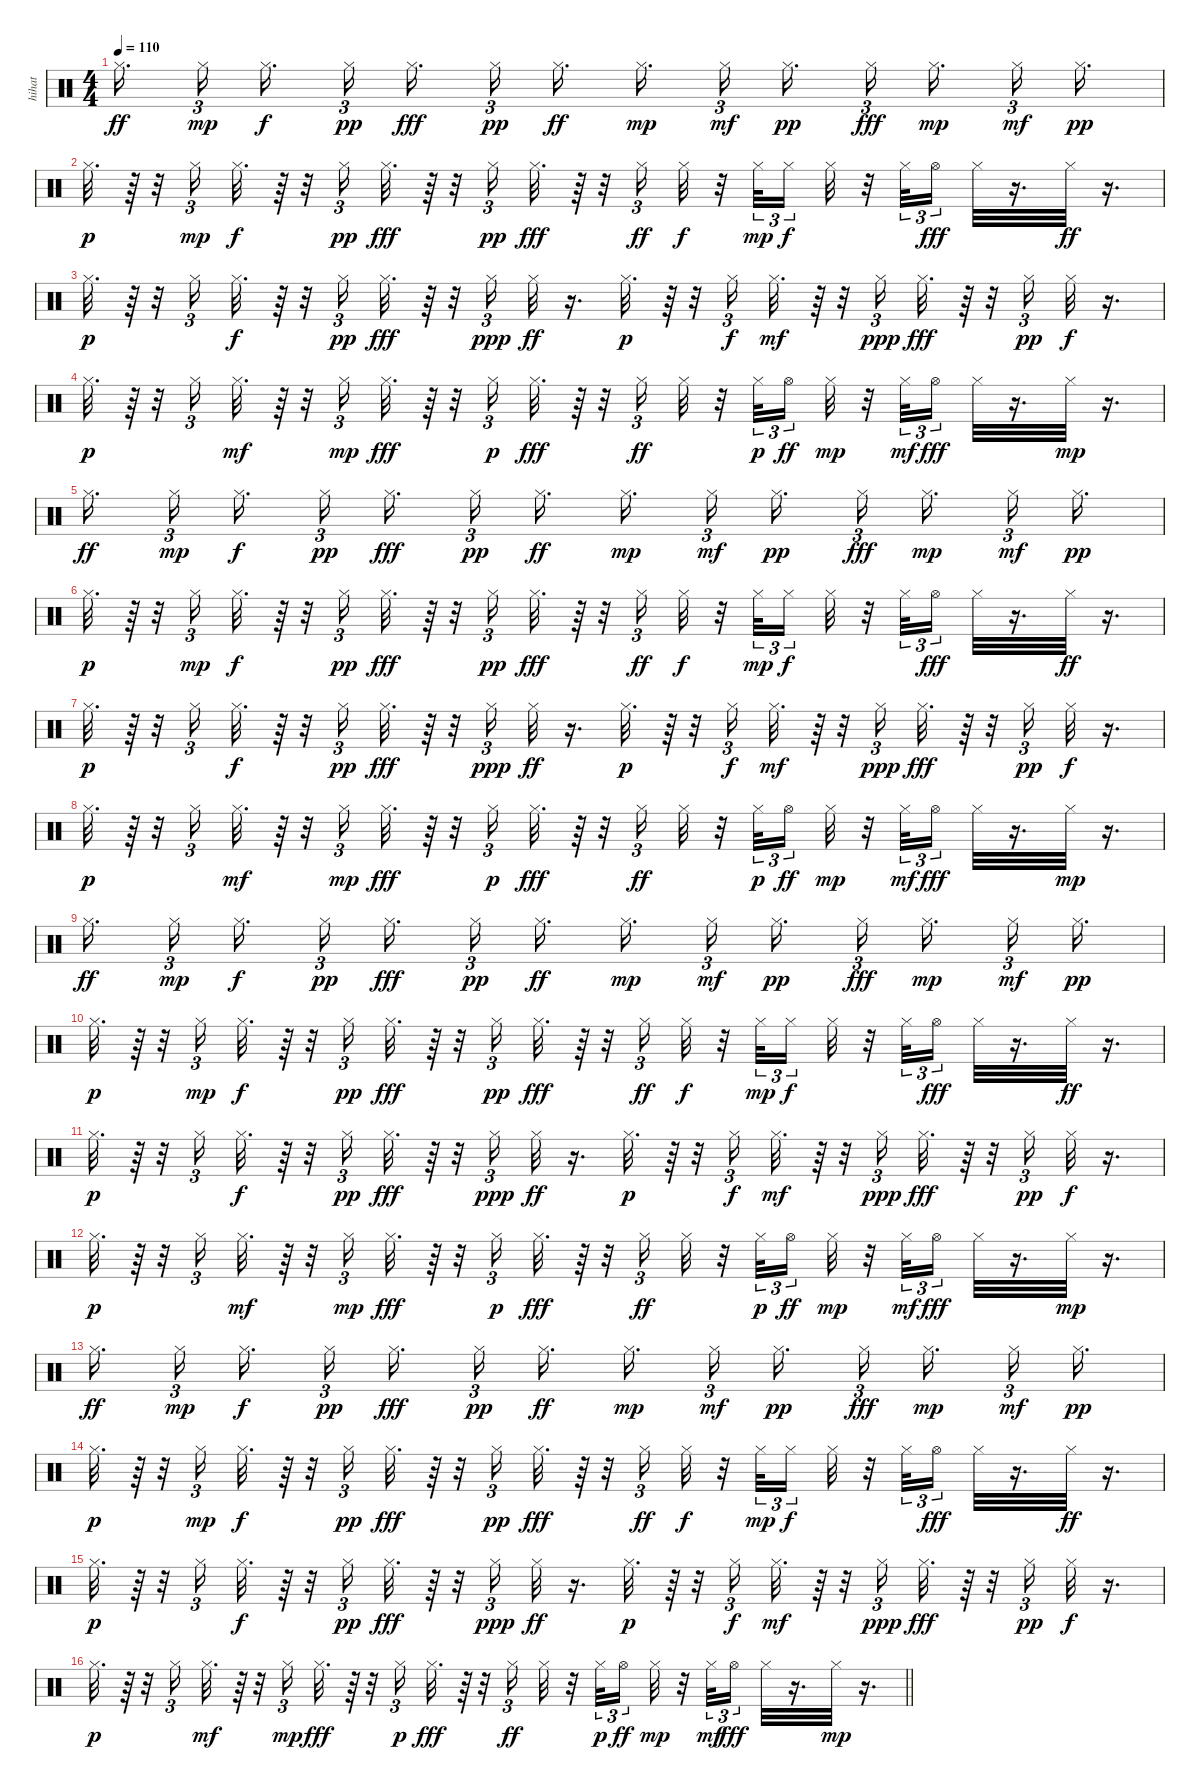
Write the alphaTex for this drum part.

\track ("hihat   " "hihat   ") {instrument percussion}
\staff {score}
\articulation defaults
\ts (4 4)
\tempo 110
\clef neutral
\ks c "Hi-Hat (closed)".16{d dy ff beam splitsecondary} "Hi-Hat (closed)".16{tu (3 2) dy mp beam splitsecondary} "Hi-Hat (closed)".16{d dy f} "Hi-Hat (closed)".16{tu (3 2) dy pp} "Hi-Hat (closed)".16{d dy fff beam splitsecondary} "Hi-Hat (closed)".16{tu (3 2) dy pp} "Hi-Hat (closed)".16{d dy ff} "Hi-Hat (closed)".16{d dy mp beam splitsecondary} "Hi-Hat (closed)".16{tu (3 2) dy mf beam splitsecondary} "Hi-Hat (closed)".16{d dy pp} "Hi-Hat (closed)".16{tu (3 2) dy fff} "Hi-Hat (closed)".16{d dy mp beam splitsecondary} "Hi-Hat (closed)".16{tu (3 2) dy mf} "Hi-Hat (closed)".16{d dy pp}
|
"Hi-Hat (closed)".32{d dy p} r.64 r.32 "Hi-Hat (closed)".16{tu (3 2) dy mp} "Hi-Hat (closed)".32{d dy f} r.64 r.32 "Hi-Hat (closed)".16{tu (3 2) dy pp} "Hi-Hat (closed)".32{d dy fff} r.64 r.32 "Hi-Hat (closed)".16{tu (3 2) dy pp} "Hi-Hat (closed)".32{d dy fff} r.64 r.32 "Hi-Hat (closed)".16{tu (3 2) dy ff} "Hi-Hat (closed)".32{dy f} r.32 "Hi-Hat (closed)".32{tu (3 2) dy mp} "Hi-Hat (closed)".16{tu (3 2) dy f beam splitsecondary} "Hi-Hat (closed)".32 r.32 "Hi-Hat (closed)".32{tu (3 2)} "Hi-Hat (open)".16{tu (3 2) dy fff} "Hi-Hat (closed)".32 r.16{d} "Hi-Hat (closed)".32{dy ff} r.16{d} |
"Hi-Hat (closed)".32{d dy p} r.64 r.32 "Hi-Hat (closed)".16{tu (3 2)} "Hi-Hat (closed)".32{d dy f} r.64 r.32 "Hi-Hat (closed)".16{tu (3 2) dy pp} "Hi-Hat (closed)".32{d dy fff} r.64 r.32 "Hi-Hat (closed)".16{tu (3 2) dy ppp} "Hi-Hat (closed)".32{dy ff} r.16{d} "Hi-Hat (closed)".32{d dy p} r.64 r.32 "Hi-Hat (closed)".16{tu (3 2) dy f} "Hi-Hat (closed)".32{d dy mf} r.64 r.32 "Hi-Hat (closed)".16{tu (3 2) dy ppp} "Hi-Hat (closed)".32{d dy fff} r.64 r.32 "Hi-Hat (closed)".16{tu (3 2) dy pp} "Hi-Hat (closed)".32{dy f} r.16{d} |
"Hi-Hat (closed)".32{d dy p} r.64 r.32 "Hi-Hat (closed)".16{tu (3 2)} "Hi-Hat (closed)".32{d dy mf} r.64 r.32 "Hi-Hat (closed)".16{tu (3 2) dy mp} "Hi-Hat (closed)".32{d dy fff} r.64 r.32 "Hi-Hat (closed)".16{tu (3 2) dy p} "Hi-Hat (closed)".32{d dy fff} r.64 r.32 "Hi-Hat (closed)".16{tu (3 2) dy ff} "Hi-Hat (closed)".32 r.32 "Hi-Hat (closed)".32{tu (3 2) dy p} "Hi-Hat (open)".16{tu (3 2) dy ff beam splitsecondary} "Hi-Hat (closed)".32{dy mp} r.32 "Hi-Hat (closed)".32{tu (3 2) dy mf} "Hi-Hat (open)".16{tu (3 2) dy fff} "Hi-Hat (closed)".32 r.16{d} "Hi-Hat (closed)".32{dy mp} r.16{d} |
"Hi-Hat (closed)".16{d dy ff beam splitsecondary} "Hi-Hat (closed)".16{tu (3 2) dy mp beam splitsecondary} "Hi-Hat (closed)".16{d dy f} "Hi-Hat (closed)".16{tu (3 2) dy pp} "Hi-Hat (closed)".16{d dy fff beam splitsecondary} "Hi-Hat (closed)".16{tu (3 2) dy pp} "Hi-Hat (closed)".16{d dy ff} "Hi-Hat (closed)".16{d dy mp beam splitsecondary} "Hi-Hat (closed)".16{tu (3 2) dy mf beam splitsecondary} "Hi-Hat (closed)".16{d dy pp} "Hi-Hat (closed)".16{tu (3 2) dy fff} "Hi-Hat (closed)".16{d dy mp beam splitsecondary} "Hi-Hat (closed)".16{tu (3 2) dy mf} "Hi-Hat (closed)".16{d dy pp} |
"Hi-Hat (closed)".32{d dy p} r.64 r.32 "Hi-Hat (closed)".16{tu (3 2) dy mp} "Hi-Hat (closed)".32{d dy f} r.64 r.32 "Hi-Hat (closed)".16{tu (3 2) dy pp} "Hi-Hat (closed)".32{d dy fff} r.64 r.32 "Hi-Hat (closed)".16{tu (3 2) dy pp} "Hi-Hat (closed)".32{d dy fff} r.64 r.32 "Hi-Hat (closed)".16{tu (3 2) dy ff} "Hi-Hat (closed)".32{dy f} r.32 "Hi-Hat (closed)".32{tu (3 2) dy mp} "Hi-Hat (closed)".16{tu (3 2) dy f beam splitsecondary} "Hi-Hat (closed)".32 r.32 "Hi-Hat (closed)".32{tu (3 2)} "Hi-Hat (open)".16{tu (3 2) dy fff} "Hi-Hat (closed)".32 r.16{d} "Hi-Hat (closed)".32{dy ff} r.16{d} |
"Hi-Hat (closed)".32{d dy p} r.64 r.32 "Hi-Hat (closed)".16{tu (3 2)} "Hi-Hat (closed)".32{d dy f} r.64 r.32 "Hi-Hat (closed)".16{tu (3 2) dy pp} "Hi-Hat (closed)".32{d dy fff} r.64 r.32 "Hi-Hat (closed)".16{tu (3 2) dy ppp} "Hi-Hat (closed)".32{dy ff} r.16{d} "Hi-Hat (closed)".32{d dy p} r.64 r.32 "Hi-Hat (closed)".16{tu (3 2) dy f} "Hi-Hat (closed)".32{d dy mf} r.64 r.32 "Hi-Hat (closed)".16{tu (3 2) dy ppp} "Hi-Hat (closed)".32{d dy fff} r.64 r.32 "Hi-Hat (closed)".16{tu (3 2) dy pp} "Hi-Hat (closed)".32{dy f} r.16{d} |
"Hi-Hat (closed)".32{d dy p} r.64 r.32 "Hi-Hat (closed)".16{tu (3 2)} "Hi-Hat (closed)".32{d dy mf} r.64 r.32 "Hi-Hat (closed)".16{tu (3 2) dy mp} "Hi-Hat (closed)".32{d dy fff} r.64 r.32 "Hi-Hat (closed)".16{tu (3 2) dy p} "Hi-Hat (closed)".32{d dy fff} r.64 r.32 "Hi-Hat (closed)".16{tu (3 2) dy ff} "Hi-Hat (closed)".32 r.32 "Hi-Hat (closed)".32{tu (3 2) dy p} "Hi-Hat (open)".16{tu (3 2) dy ff beam splitsecondary} "Hi-Hat (closed)".32{dy mp} r.32 "Hi-Hat (closed)".32{tu (3 2) dy mf} "Hi-Hat (open)".16{tu (3 2) dy fff} "Hi-Hat (closed)".32 r.16{d} "Hi-Hat (closed)".32{dy mp} r.16{d} |
"Hi-Hat (closed)".16{d dy ff beam splitsecondary} "Hi-Hat (closed)".16{tu (3 2) dy mp beam splitsecondary} "Hi-Hat (closed)".16{d dy f} "Hi-Hat (closed)".16{tu (3 2) dy pp} "Hi-Hat (closed)".16{d dy fff beam splitsecondary} "Hi-Hat (closed)".16{tu (3 2) dy pp} "Hi-Hat (closed)".16{d dy ff} "Hi-Hat (closed)".16{d dy mp beam splitsecondary} "Hi-Hat (closed)".16{tu (3 2) dy mf beam splitsecondary} "Hi-Hat (closed)".16{d dy pp} "Hi-Hat (closed)".16{tu (3 2) dy fff} "Hi-Hat (closed)".16{d dy mp beam splitsecondary} "Hi-Hat (closed)".16{tu (3 2) dy mf} "Hi-Hat (closed)".16{d dy pp} |
"Hi-Hat (closed)".32{d dy p} r.64 r.32 "Hi-Hat (closed)".16{tu (3 2) dy mp} "Hi-Hat (closed)".32{d dy f} r.64 r.32 "Hi-Hat (closed)".16{tu (3 2) dy pp} "Hi-Hat (closed)".32{d dy fff} r.64 r.32 "Hi-Hat (closed)".16{tu (3 2) dy pp} "Hi-Hat (closed)".32{d dy fff} r.64 r.32 "Hi-Hat (closed)".16{tu (3 2) dy ff} "Hi-Hat (closed)".32{dy f} r.32 "Hi-Hat (closed)".32{tu (3 2) dy mp} "Hi-Hat (closed)".16{tu (3 2) dy f beam splitsecondary} "Hi-Hat (closed)".32 r.32 "Hi-Hat (closed)".32{tu (3 2)} "Hi-Hat (open)".16{tu (3 2) dy fff} "Hi-Hat (closed)".32 r.16{d} "Hi-Hat (closed)".32{dy ff} r.16{d} |
"Hi-Hat (closed)".32{d dy p} r.64 r.32 "Hi-Hat (closed)".16{tu (3 2)} "Hi-Hat (closed)".32{d dy f} r.64 r.32 "Hi-Hat (closed)".16{tu (3 2) dy pp} "Hi-Hat (closed)".32{d dy fff} r.64 r.32 "Hi-Hat (closed)".16{tu (3 2) dy ppp} "Hi-Hat (closed)".32{dy ff} r.16{d} "Hi-Hat (closed)".32{d dy p} r.64 r.32 "Hi-Hat (closed)".16{tu (3 2) dy f} "Hi-Hat (closed)".32{d dy mf} r.64 r.32 "Hi-Hat (closed)".16{tu (3 2) dy ppp} "Hi-Hat (closed)".32{d dy fff} r.64 r.32 "Hi-Hat (closed)".16{tu (3 2) dy pp} "Hi-Hat (closed)".32{dy f} r.16{d} |
"Hi-Hat (closed)".32{d dy p} r.64 r.32 "Hi-Hat (closed)".16{tu (3 2)} "Hi-Hat (closed)".32{d dy mf} r.64 r.32 "Hi-Hat (closed)".16{tu (3 2) dy mp} "Hi-Hat (closed)".32{d dy fff} r.64 r.32 "Hi-Hat (closed)".16{tu (3 2) dy p} "Hi-Hat (closed)".32{d dy fff} r.64 r.32 "Hi-Hat (closed)".16{tu (3 2) dy ff} "Hi-Hat (closed)".32 r.32 "Hi-Hat (closed)".32{tu (3 2) dy p} "Hi-Hat (open)".16{tu (3 2) dy ff beam splitsecondary} "Hi-Hat (closed)".32{dy mp} r.32 "Hi-Hat (closed)".32{tu (3 2) dy mf} "Hi-Hat (open)".16{tu (3 2) dy fff} "Hi-Hat (closed)".32 r.16{d} "Hi-Hat (closed)".32{dy mp} r.16{d} |
"Hi-Hat (closed)".16{d dy ff beam splitsecondary} "Hi-Hat (closed)".16{tu (3 2) dy mp beam splitsecondary} "Hi-Hat (closed)".16{d dy f} "Hi-Hat (closed)".16{tu (3 2) dy pp} "Hi-Hat (closed)".16{d dy fff beam splitsecondary} "Hi-Hat (closed)".16{tu (3 2) dy pp} "Hi-Hat (closed)".16{d dy ff} "Hi-Hat (closed)".16{d dy mp beam splitsecondary} "Hi-Hat (closed)".16{tu (3 2) dy mf beam splitsecondary} "Hi-Hat (closed)".16{d dy pp} "Hi-Hat (closed)".16{tu (3 2) dy fff} "Hi-Hat (closed)".16{d dy mp beam splitsecondary} "Hi-Hat (closed)".16{tu (3 2) dy mf} "Hi-Hat (closed)".16{d dy pp} |
"Hi-Hat (closed)".32{d dy p} r.64 r.32 "Hi-Hat (closed)".16{tu (3 2) dy mp} "Hi-Hat (closed)".32{d dy f} r.64 r.32 "Hi-Hat (closed)".16{tu (3 2) dy pp} "Hi-Hat (closed)".32{d dy fff} r.64 r.32 "Hi-Hat (closed)".16{tu (3 2) dy pp} "Hi-Hat (closed)".32{d dy fff} r.64 r.32 "Hi-Hat (closed)".16{tu (3 2) dy ff} "Hi-Hat (closed)".32{dy f} r.32 "Hi-Hat (closed)".32{tu (3 2) dy mp} "Hi-Hat (closed)".16{tu (3 2) dy f beam splitsecondary} "Hi-Hat (closed)".32 r.32 "Hi-Hat (closed)".32{tu (3 2)} "Hi-Hat (open)".16{tu (3 2) dy fff} "Hi-Hat (closed)".32 r.16{d} "Hi-Hat (closed)".32{dy ff} r.16{d} |
"Hi-Hat (closed)".32{d dy p} r.64 r.32 "Hi-Hat (closed)".16{tu (3 2)} "Hi-Hat (closed)".32{d dy f} r.64 r.32 "Hi-Hat (closed)".16{tu (3 2) dy pp} "Hi-Hat (closed)".32{d dy fff} r.64 r.32 "Hi-Hat (closed)".16{tu (3 2) dy ppp} "Hi-Hat (closed)".32{dy ff} r.16{d} "Hi-Hat (closed)".32{d dy p} r.64 r.32 "Hi-Hat (closed)".16{tu (3 2) dy f} "Hi-Hat (closed)".32{d dy mf} r.64 r.32 "Hi-Hat (closed)".16{tu (3 2) dy ppp} "Hi-Hat (closed)".32{d dy fff} r.64 r.32 "Hi-Hat (closed)".16{tu (3 2) dy pp} "Hi-Hat (closed)".32{dy f} r.16{d} |
\barLineRight lightlight "Hi-Hat (closed)".32{d dy p}
r.64 r.32 "Hi-Hat (closed)".16{tu (3 2)} "Hi-Hat (closed)".32{d dy mf} r.64 r.32 "Hi-Hat (closed)".16{tu (3 2) dy mp} "Hi-Hat (closed)".32{d dy fff} r.64 r.32 "Hi-Hat (closed)".16{tu (3 2) dy p} "Hi-Hat (closed)".32{d dy fff} r.64 r.32 "Hi-Hat (closed)".16{tu (3 2) dy ff} "Hi-Hat (closed)".32 r.32 "Hi-Hat (closed)".32{tu (3 2) dy p} "Hi-Hat (open)".16{tu (3 2) dy ff beam splitsecondary} "Hi-Hat (closed)".32{dy mp} r.32 "Hi-Hat (closed)".32{tu (3 2) dy mf} "Hi-Hat (open)".16{tu (3 2) dy fff} "Hi-Hat (closed)".32 r.16{d} "Hi-Hat (closed)".32{dy mp} r.16{d}
